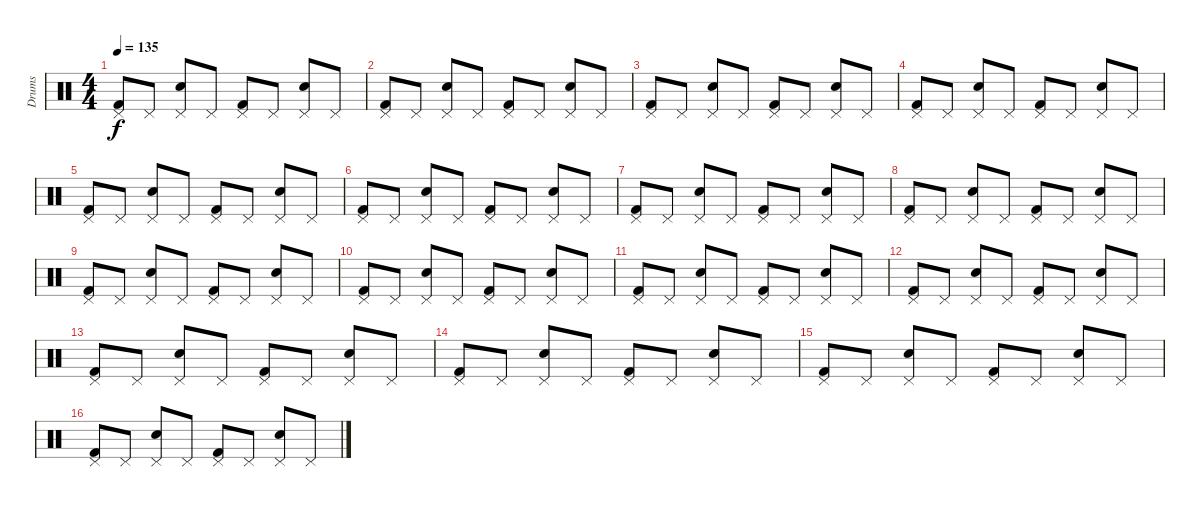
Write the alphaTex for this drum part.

\track ("Drums" "Drums") {instrument percussion}
\staff {score}
\articulation defaults
\ts (4 4)
\tempo 135
\clef neutral
\ks c
("Pedal Hi-Hat (hit)" "Kick (hit) 2").8{dy f} "Pedal Hi-Hat (hit)".8 ("Pedal Hi-Hat (hit)" "Snare (hit) 2").8 "Pedal Hi-Hat (hit)".8 ("Pedal Hi-Hat (hit)" "Kick (hit) 2").8 "Pedal Hi-Hat (hit)".8 ("Pedal Hi-Hat (hit)" "Snare (hit) 2").8 "Pedal Hi-Hat (hit)".8 |
("Pedal Hi-Hat (hit)" "Kick (hit) 2").8 "Pedal Hi-Hat (hit)".8 ("Pedal Hi-Hat (hit)" "Snare (hit) 2").8 "Pedal Hi-Hat (hit)".8 ("Pedal Hi-Hat (hit)" "Kick (hit) 2").8 "Pedal Hi-Hat (hit)".8 ("Pedal Hi-Hat (hit)" "Snare (hit) 2").8 "Pedal Hi-Hat (hit)".8 |
("Pedal Hi-Hat (hit)" "Kick (hit) 2").8 "Pedal Hi-Hat (hit)".8 ("Pedal Hi-Hat (hit)" "Snare (hit) 2").8 "Pedal Hi-Hat (hit)".8 ("Pedal Hi-Hat (hit)" "Kick (hit) 2").8 "Pedal Hi-Hat (hit)".8 ("Pedal Hi-Hat (hit)" "Snare (hit) 2").8 "Pedal Hi-Hat (hit)".8 |
("Pedal Hi-Hat (hit)" "Kick (hit) 2").8 "Pedal Hi-Hat (hit)".8 ("Pedal Hi-Hat (hit)" "Snare (hit) 2").8 "Pedal Hi-Hat (hit)".8 ("Pedal Hi-Hat (hit)" "Kick (hit) 2").8 "Pedal Hi-Hat (hit)".8 ("Pedal Hi-Hat (hit)" "Snare (hit) 2").8 "Pedal Hi-Hat (hit)".8 |
("Pedal Hi-Hat (hit)" "Kick (hit) 2").8 "Pedal Hi-Hat (hit)".8 ("Pedal Hi-Hat (hit)" "Snare (hit) 2").8 "Pedal Hi-Hat (hit)".8 ("Pedal Hi-Hat (hit)" "Kick (hit) 2").8 "Pedal Hi-Hat (hit)".8 ("Pedal Hi-Hat (hit)" "Snare (hit) 2").8 "Pedal Hi-Hat (hit)".8 |
("Pedal Hi-Hat (hit)" "Kick (hit) 2").8 "Pedal Hi-Hat (hit)".8 ("Pedal Hi-Hat (hit)" "Snare (hit) 2").8 "Pedal Hi-Hat (hit)".8 ("Pedal Hi-Hat (hit)" "Kick (hit) 2").8 "Pedal Hi-Hat (hit)".8 ("Pedal Hi-Hat (hit)" "Snare (hit) 2").8 "Pedal Hi-Hat (hit)".8 |
("Pedal Hi-Hat (hit)" "Kick (hit) 2").8 "Pedal Hi-Hat (hit)".8 ("Pedal Hi-Hat (hit)" "Snare (hit) 2").8 "Pedal Hi-Hat (hit)".8 ("Pedal Hi-Hat (hit)" "Kick (hit) 2").8 "Pedal Hi-Hat (hit)".8 ("Pedal Hi-Hat (hit)" "Snare (hit) 2").8 "Pedal Hi-Hat (hit)".8 |
("Pedal Hi-Hat (hit)" "Kick (hit) 2").8 "Pedal Hi-Hat (hit)".8 ("Pedal Hi-Hat (hit)" "Snare (hit) 2").8 "Pedal Hi-Hat (hit)".8 ("Pedal Hi-Hat (hit)" "Kick (hit) 2").8 "Pedal Hi-Hat (hit)".8 ("Pedal Hi-Hat (hit)" "Snare (hit) 2").8 "Pedal Hi-Hat (hit)".8 |
("Pedal Hi-Hat (hit)" "Kick (hit) 2").8 "Pedal Hi-Hat (hit)".8 ("Pedal Hi-Hat (hit)" "Snare (hit) 2").8 "Pedal Hi-Hat (hit)".8 ("Pedal Hi-Hat (hit)" "Kick (hit) 2").8 "Pedal Hi-Hat (hit)".8 ("Pedal Hi-Hat (hit)" "Snare (hit) 2").8 "Pedal Hi-Hat (hit)".8 |
("Pedal Hi-Hat (hit)" "Kick (hit) 2").8 "Pedal Hi-Hat (hit)".8 ("Pedal Hi-Hat (hit)" "Snare (hit) 2").8 "Pedal Hi-Hat (hit)".8 ("Pedal Hi-Hat (hit)" "Kick (hit) 2").8 "Pedal Hi-Hat (hit)".8 ("Pedal Hi-Hat (hit)" "Snare (hit) 2").8 "Pedal Hi-Hat (hit)".8 |
("Pedal Hi-Hat (hit)" "Kick (hit) 2").8 "Pedal Hi-Hat (hit)".8 ("Pedal Hi-Hat (hit)" "Snare (hit) 2").8 "Pedal Hi-Hat (hit)".8 ("Pedal Hi-Hat (hit)" "Kick (hit) 2").8 "Pedal Hi-Hat (hit)".8 ("Pedal Hi-Hat (hit)" "Snare (hit) 2").8 "Pedal Hi-Hat (hit)".8 |
("Pedal Hi-Hat (hit)" "Kick (hit) 2").8 "Pedal Hi-Hat (hit)".8 ("Pedal Hi-Hat (hit)" "Snare (hit) 2").8 "Pedal Hi-Hat (hit)".8 ("Pedal Hi-Hat (hit)" "Kick (hit) 2").8 "Pedal Hi-Hat (hit)".8 ("Pedal Hi-Hat (hit)" "Snare (hit) 2").8 "Pedal Hi-Hat (hit)".8 |
("Pedal Hi-Hat (hit)" "Kick (hit) 2").8 "Pedal Hi-Hat (hit)".8 ("Pedal Hi-Hat (hit)" "Snare (hit) 2").8 "Pedal Hi-Hat (hit)".8 ("Pedal Hi-Hat (hit)" "Kick (hit) 2").8 "Pedal Hi-Hat (hit)".8 ("Pedal Hi-Hat (hit)" "Snare (hit) 2").8 "Pedal Hi-Hat (hit)".8 |
("Pedal Hi-Hat (hit)" "Kick (hit) 2").8 "Pedal Hi-Hat (hit)".8 ("Pedal Hi-Hat (hit)" "Snare (hit) 2").8 "Pedal Hi-Hat (hit)".8 ("Pedal Hi-Hat (hit)" "Kick (hit) 2").8 "Pedal Hi-Hat (hit)".8 ("Pedal Hi-Hat (hit)" "Snare (hit) 2").8 "Pedal Hi-Hat (hit)".8 |
("Pedal Hi-Hat (hit)" "Kick (hit) 2").8 "Pedal Hi-Hat (hit)".8 ("Pedal Hi-Hat (hit)" "Snare (hit) 2").8 "Pedal Hi-Hat (hit)".8 ("Pedal Hi-Hat (hit)" "Kick (hit) 2").8 "Pedal Hi-Hat (hit)".8 ("Pedal Hi-Hat (hit)" "Snare (hit) 2").8 "Pedal Hi-Hat (hit)".8 |
("Pedal Hi-Hat (hit)" "Kick (hit) 2").8 "Pedal Hi-Hat (hit)".8 ("Pedal Hi-Hat (hit)" "Snare (hit) 2").8 "Pedal Hi-Hat (hit)".8 ("Pedal Hi-Hat (hit)" "Kick (hit) 2").8 "Pedal Hi-Hat (hit)".8 ("Pedal Hi-Hat (hit)" "Snare (hit) 2").8 "Pedal Hi-Hat (hit)".8
